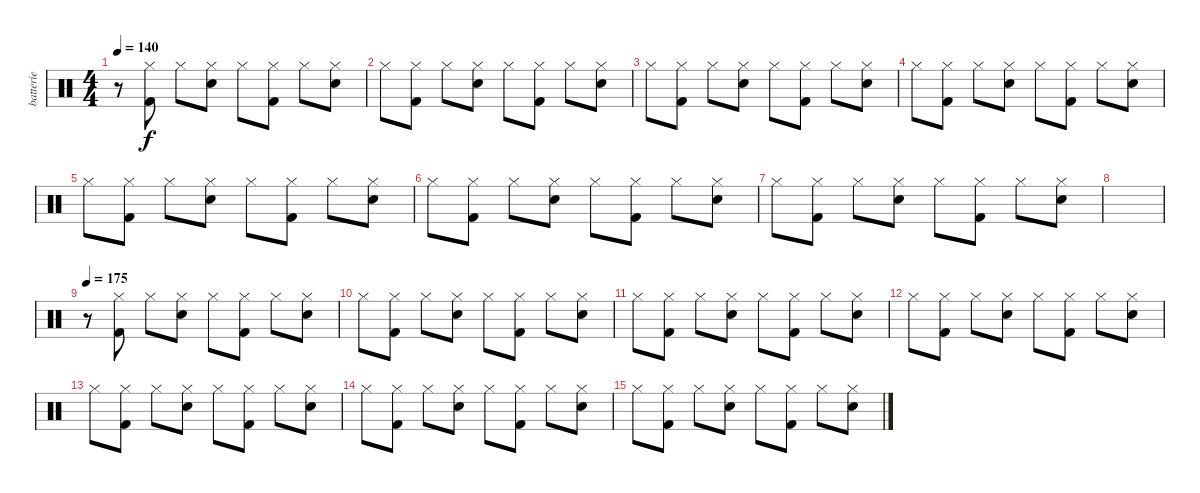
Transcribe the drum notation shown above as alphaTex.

\track ("batterie" "batterie") {instrument percussion}
\staff {score}
\articulation defaults
\ts (4 4)
\tempo 140
\clef neutral
\ks c
r.8{dy f} ("Hi-Hat (closed)" "Kick (hit) 2").8 "Hi-Hat (closed)".8 ("Hi-Hat (closed)" "Electric Snare (hit)").8 "Hi-Hat (closed)".8 ("Hi-Hat (closed)" "Kick (hit) 2").8 "Hi-Hat (closed)".8 ("Hi-Hat (closed)" "Electric Snare (hit)").8 |
"Hi-Hat (closed)".8 ("Hi-Hat (closed)" "Kick (hit) 2").8 "Hi-Hat (closed)".8 ("Hi-Hat (closed)" "Electric Snare (hit)").8 "Hi-Hat (closed)".8 ("Hi-Hat (closed)" "Kick (hit) 2").8 "Hi-Hat (closed)".8 ("Hi-Hat (closed)" "Electric Snare (hit)").8 |
"Hi-Hat (closed)".8 ("Hi-Hat (closed)" "Kick (hit) 2").8 "Hi-Hat (closed)".8 ("Hi-Hat (closed)" "Electric Snare (hit)").8 "Hi-Hat (closed)".8 ("Hi-Hat (closed)" "Kick (hit) 2").8 "Hi-Hat (closed)".8 ("Hi-Hat (closed)" "Electric Snare (hit)").8 |
"Hi-Hat (closed)".8 ("Hi-Hat (closed)" "Kick (hit) 2").8 "Hi-Hat (closed)".8 ("Hi-Hat (closed)" "Electric Snare (hit)").8 "Hi-Hat (closed)".8 ("Hi-Hat (closed)" "Kick (hit) 2").8 "Hi-Hat (closed)".8 ("Hi-Hat (closed)" "Electric Snare (hit)").8 |
"Hi-Hat (closed)".8 ("Hi-Hat (closed)" "Kick (hit) 2").8 "Hi-Hat (closed)".8 ("Hi-Hat (closed)" "Electric Snare (hit)").8 "Hi-Hat (closed)".8 ("Hi-Hat (closed)" "Kick (hit) 2").8 "Hi-Hat (closed)".8 ("Hi-Hat (closed)" "Electric Snare (hit)").8 |
"Hi-Hat (closed)".8 ("Hi-Hat (closed)" "Kick (hit) 2").8 "Hi-Hat (closed)".8 ("Hi-Hat (closed)" "Electric Snare (hit)").8 "Hi-Hat (closed)".8 ("Hi-Hat (closed)" "Kick (hit) 2").8 "Hi-Hat (closed)".8 ("Hi-Hat (closed)" "Electric Snare (hit)").8 |
"Hi-Hat (closed)".8 ("Hi-Hat (closed)" "Kick (hit) 2").8 "Hi-Hat (closed)".8 ("Hi-Hat (closed)" "Electric Snare (hit)").8 "Hi-Hat (closed)".8 ("Hi-Hat (closed)" "Kick (hit) 2").8 "Hi-Hat (closed)".8 ("Hi-Hat (closed)" "Electric Snare (hit)").8 |
|
\tempo 175
r.8 ("Hi-Hat (closed)" "Kick (hit) 2").8 "Hi-Hat (closed)".8 ("Hi-Hat (closed)" "Electric Snare (hit)").8 "Hi-Hat (closed)".8 ("Hi-Hat (closed)" "Kick (hit) 2").8 "Hi-Hat (closed)".8 ("Hi-Hat (closed)" "Electric Snare (hit)").8 |
"Hi-Hat (closed)".8 ("Hi-Hat (closed)" "Kick (hit) 2").8 "Hi-Hat (closed)".8 ("Hi-Hat (closed)" "Electric Snare (hit)").8 "Hi-Hat (closed)".8 ("Hi-Hat (closed)" "Kick (hit) 2").8 "Hi-Hat (closed)".8 ("Hi-Hat (closed)" "Electric Snare (hit)").8 |
"Hi-Hat (closed)".8 ("Hi-Hat (closed)" "Kick (hit) 2").8 "Hi-Hat (closed)".8 ("Hi-Hat (closed)" "Electric Snare (hit)").8 "Hi-Hat (closed)".8 ("Hi-Hat (closed)" "Kick (hit) 2").8 "Hi-Hat (closed)".8 ("Hi-Hat (closed)" "Electric Snare (hit)").8 |
"Hi-Hat (closed)".8 ("Hi-Hat (closed)" "Kick (hit) 2").8 "Hi-Hat (closed)".8 ("Hi-Hat (closed)" "Electric Snare (hit)").8 "Hi-Hat (closed)".8 ("Hi-Hat (closed)" "Kick (hit) 2").8 "Hi-Hat (closed)".8 ("Hi-Hat (closed)" "Electric Snare (hit)").8 |
"Hi-Hat (closed)".8 ("Hi-Hat (closed)" "Kick (hit) 2").8 "Hi-Hat (closed)".8 ("Hi-Hat (closed)" "Electric Snare (hit)").8 "Hi-Hat (closed)".8 ("Hi-Hat (closed)" "Kick (hit) 2").8 "Hi-Hat (closed)".8 ("Hi-Hat (closed)" "Electric Snare (hit)").8 |
"Hi-Hat (closed)".8 ("Hi-Hat (closed)" "Kick (hit) 2").8 "Hi-Hat (closed)".8 ("Hi-Hat (closed)" "Electric Snare (hit)").8 "Hi-Hat (closed)".8 ("Hi-Hat (closed)" "Kick (hit) 2").8 "Hi-Hat (closed)".8 ("Hi-Hat (closed)" "Electric Snare (hit)").8 |
"Hi-Hat (closed)".8 ("Hi-Hat (closed)" "Kick (hit) 2").8 "Hi-Hat (closed)".8 ("Hi-Hat (closed)" "Electric Snare (hit)").8 "Hi-Hat (closed)".8 ("Hi-Hat (closed)" "Kick (hit) 2").8 "Hi-Hat (closed)".8 ("Hi-Hat (closed)" "Electric Snare (hit)").8
